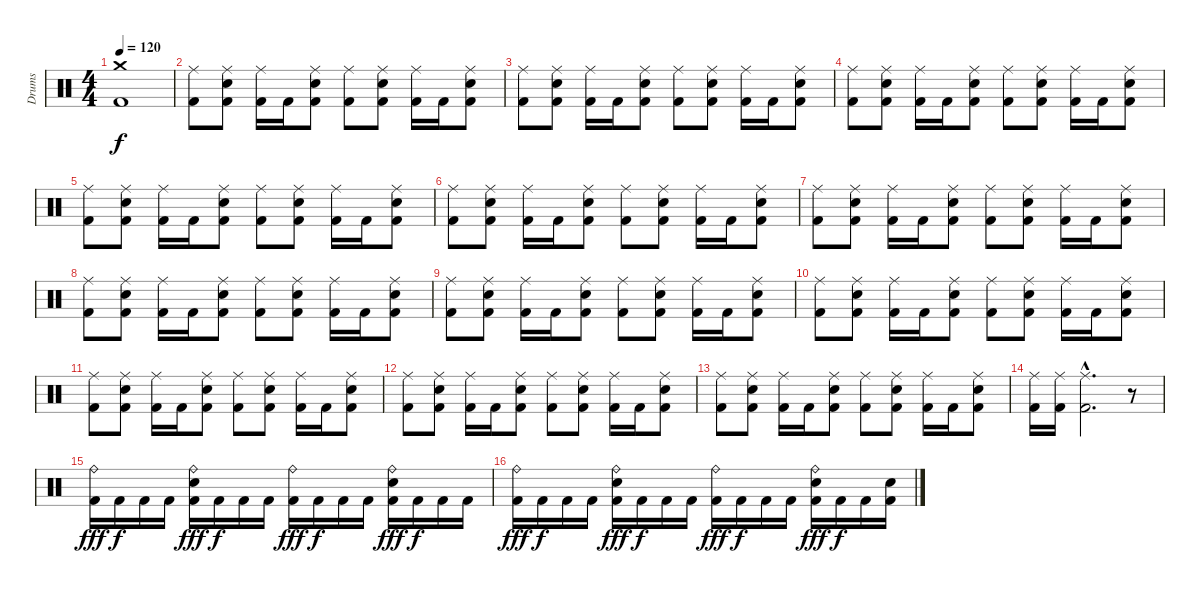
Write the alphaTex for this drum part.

\track ("Drums" "Drums") {instrument percussion}
\staff {score}
\articulation defaults
\ts (4 4)
\tempo 120
\clef neutral
\ks c
("Crash medium (hit)" "Kick (hit) 2").1{dy f} |
("Ride (middle)" "Kick (hit) 2").8 ("Ride (middle)" "Electric Snare (hit)" "Kick (hit) 2").8 ("Ride (middle)" "Kick (hit) 2").16 "Kick (hit) 2".16 ("Ride (middle)" "Electric Snare (hit)" "Kick (hit) 2").8 ("Ride (middle)" "Kick (hit) 2").8 ("Ride (middle)" "Electric Snare (hit)" "Kick (hit) 2").8 ("Ride (middle)" "Kick (hit) 2").16 "Kick (hit) 2".16 ("Ride (middle)" "Electric Snare (hit)" "Kick (hit) 2").8 |
("Ride (middle)" "Kick (hit) 2").8 ("Ride (middle)" "Electric Snare (hit)" "Kick (hit) 2").8 ("Ride (middle)" "Kick (hit) 2").16 "Kick (hit) 2".16 ("Ride (middle)" "Electric Snare (hit)" "Kick (hit) 2").8 ("Ride (middle)" "Kick (hit) 2").8 ("Ride (middle)" "Electric Snare (hit)" "Kick (hit) 2").8 ("Ride (middle)" "Kick (hit) 2").16 "Kick (hit) 2".16 ("Ride (middle)" "Electric Snare (hit)" "Kick (hit) 2").8 |
("Ride (middle)" "Kick (hit) 2").8 ("Ride (middle)" "Electric Snare (hit)" "Kick (hit) 2").8 ("Ride (middle)" "Kick (hit) 2").16 "Kick (hit) 2".16 ("Ride (middle)" "Electric Snare (hit)" "Kick (hit) 2").8 ("Ride (middle)" "Kick (hit) 2").8 ("Ride (middle)" "Electric Snare (hit)" "Kick (hit) 2").8 ("Ride (middle)" "Kick (hit) 2").16 "Kick (hit) 2".16 ("Ride (middle)" "Electric Snare (hit)" "Kick (hit) 2").8 |
("Ride (middle)" "Kick (hit) 2").8 ("Ride (middle)" "Electric Snare (hit)" "Kick (hit) 2").8 ("Ride (middle)" "Kick (hit) 2").16 "Kick (hit) 2".16 ("Ride (middle)" "Electric Snare (hit)" "Kick (hit) 2").8 ("Ride (middle)" "Kick (hit) 2").8 ("Ride (middle)" "Electric Snare (hit)" "Kick (hit) 2").8 ("Ride (middle)" "Kick (hit) 2").16 "Kick (hit) 2".16 ("Ride (middle)" "Electric Snare (hit)" "Kick (hit) 2").8 |
("Ride (middle)" "Kick (hit) 2").8 ("Ride (middle)" "Electric Snare (hit)" "Kick (hit) 2").8 ("Ride (middle)" "Kick (hit) 2").16 "Kick (hit) 2".16 ("Ride (middle)" "Electric Snare (hit)" "Kick (hit) 2").8 ("Ride (middle)" "Kick (hit) 2").8 ("Ride (middle)" "Electric Snare (hit)" "Kick (hit) 2").8 ("Ride (middle)" "Kick (hit) 2").16 "Kick (hit) 2".16 ("Ride (middle)" "Electric Snare (hit)" "Kick (hit) 2").8 |
("Ride (middle)" "Kick (hit) 2").8 ("Ride (middle)" "Electric Snare (hit)" "Kick (hit) 2").8 ("Ride (middle)" "Kick (hit) 2").16 "Kick (hit) 2".16 ("Ride (middle)" "Electric Snare (hit)" "Kick (hit) 2").8 ("Ride (middle)" "Kick (hit) 2").8 ("Ride (middle)" "Electric Snare (hit)" "Kick (hit) 2").8 ("Ride (middle)" "Kick (hit) 2").16 "Kick (hit) 2".16 ("Ride (middle)" "Electric Snare (hit)" "Kick (hit) 2").8 |
("Ride (middle)" "Kick (hit) 2").8 ("Ride (middle)" "Electric Snare (hit)" "Kick (hit) 2").8 ("Ride (middle)" "Kick (hit) 2").16 "Kick (hit) 2".16 ("Ride (middle)" "Electric Snare (hit)" "Kick (hit) 2").8 ("Ride (middle)" "Kick (hit) 2").8 ("Ride (middle)" "Electric Snare (hit)" "Kick (hit) 2").8 ("Ride (middle)" "Kick (hit) 2").16 "Kick (hit) 2".16 ("Ride (middle)" "Electric Snare (hit)" "Kick (hit) 2").8 |
("Ride (middle)" "Kick (hit) 2").8 ("Ride (middle)" "Electric Snare (hit)" "Kick (hit) 2").8 ("Ride (middle)" "Kick (hit) 2").16 "Kick (hit) 2".16 ("Ride (middle)" "Electric Snare (hit)" "Kick (hit) 2").8 ("Ride (middle)" "Kick (hit) 2").8 ("Ride (middle)" "Electric Snare (hit)" "Kick (hit) 2").8 ("Ride (middle)" "Kick (hit) 2").16 "Kick (hit) 2".16 ("Ride (middle)" "Electric Snare (hit)" "Kick (hit) 2").8 |
("Ride (middle)" "Kick (hit) 2").8 ("Ride (middle)" "Electric Snare (hit)" "Kick (hit) 2").8 ("Ride (middle)" "Kick (hit) 2").16 "Kick (hit) 2".16 ("Ride (middle)" "Electric Snare (hit)" "Kick (hit) 2").8 ("Ride (middle)" "Kick (hit) 2").8 ("Ride (middle)" "Electric Snare (hit)" "Kick (hit) 2").8 ("Ride (middle)" "Kick (hit) 2").16 "Kick (hit) 2".16 ("Ride (middle)" "Electric Snare (hit)" "Kick (hit) 2").8 |
("Ride (middle)" "Kick (hit) 2").8 ("Ride (middle)" "Electric Snare (hit)" "Kick (hit) 2").8 ("Ride (middle)" "Kick (hit) 2").16 "Kick (hit) 2".16 ("Ride (middle)" "Electric Snare (hit)" "Kick (hit) 2").8 ("Ride (middle)" "Kick (hit) 2").8 ("Ride (middle)" "Electric Snare (hit)" "Kick (hit) 2").8 ("Ride (middle)" "Kick (hit) 2").16 "Kick (hit) 2".16 ("Ride (middle)" "Electric Snare (hit)" "Kick (hit) 2").8 |
("Ride (middle)" "Kick (hit) 2").8 ("Ride (middle)" "Electric Snare (hit)" "Kick (hit) 2").8 ("Ride (middle)" "Kick (hit) 2").16 "Kick (hit) 2".16 ("Ride (middle)" "Electric Snare (hit)" "Kick (hit) 2").8 ("Ride (middle)" "Kick (hit) 2").8 ("Ride (middle)" "Electric Snare (hit)" "Kick (hit) 2").8 ("Ride (middle)" "Kick (hit) 2").16 "Kick (hit) 2".16 ("Ride (middle)" "Electric Snare (hit)" "Kick (hit) 2").8 |
("Ride (middle)" "Kick (hit) 2").8 ("Ride (middle)" "Electric Snare (hit)" "Kick (hit) 2").8 ("Ride (middle)" "Kick (hit) 2").16 "Kick (hit) 2".16 ("Ride (middle)" "Electric Snare (hit)" "Kick (hit) 2").8 ("Ride (middle)" "Kick (hit) 2").8 ("Ride (middle)" "Electric Snare (hit)" "Kick (hit) 2").8 ("Ride (middle)" "Kick (hit) 2").16 "Kick (hit) 2".16 ("Ride (middle)" "Electric Snare (hit)" "Kick (hit) 2").8 |
("Ride (middle)" "Kick (hit) 2").16 ("Ride (middle)" "Kick (hit) 2").16 ("Ride (middle)"{hac} "Kick (hit) 2"{hac}).2{d} r.8 |
("Ride (bell)" "Kick (hit) 2").16{dy fff} "Kick (hit) 2".16{dy f} "Kick (hit) 2".16 "Kick (hit) 2".16 ("Ride (bell)" "Electric Snare (hit)" "Kick (hit) 2").16{dy fff} "Kick (hit) 2".16{dy f} "Kick (hit) 2".16 "Kick (hit) 2".16 ("Ride (bell)" "Kick (hit) 2").16{dy fff} "Kick (hit) 2".16{dy f} "Kick (hit) 2".16 "Kick (hit) 2".16 ("Ride (bell)" "Electric Snare (hit)" "Kick (hit) 2").16{dy fff} "Kick (hit) 2".16{dy f} "Kick (hit) 2".16 "Kick (hit) 2".16 |
("Ride (bell)" "Kick (hit) 2").16{dy fff} "Kick (hit) 2".16{dy f} "Kick (hit) 2".16 "Kick (hit) 2".16 ("Ride (bell)" "Electric Snare (hit)" "Kick (hit) 2").16{dy fff} "Kick (hit) 2".16{dy f} "Kick (hit) 2".16 "Kick (hit) 2".16 ("Ride (bell)" "Kick (hit) 2").16{dy fff} "Kick (hit) 2".16{dy f} "Kick (hit) 2".16 "Kick (hit) 2".16 ("Ride (bell)" "Electric Snare (hit)" "Kick (hit) 2").16{dy fff} "Kick (hit) 2".16{dy f} "Kick (hit) 2".16 ("Electric Snare (hit)" "Kick (hit) 2").16
